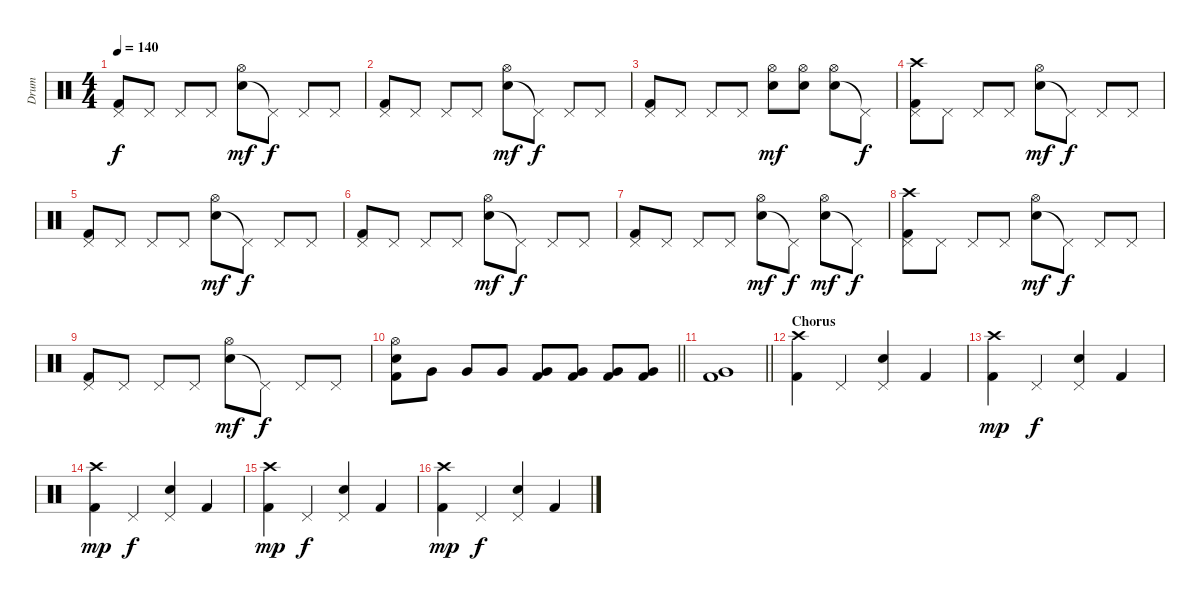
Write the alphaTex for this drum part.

\track ("Drum" "Drum") {instrument percussion}
\staff {score}
\articulation defaults
\ts (4 4)
\tempo 140
\clef neutral
\ks c
("Kick (hit) 2" "Pedal Hi-Hat (hit)").8{dy f} "Pedal Hi-Hat (hit)".8 "Pedal Hi-Hat (hit)".8 "Pedal Hi-Hat (hit)".8 ("Electric Snare (hit)" "Hi-Hat (open)").8{dy mf} "Pedal Hi-Hat (hit)"{t}.8{dy f} "Pedal Hi-Hat (hit)".8 "Pedal Hi-Hat (hit)".8 |
("Kick (hit) 2" "Pedal Hi-Hat (hit)").8 "Pedal Hi-Hat (hit)".8 "Pedal Hi-Hat (hit)".8 "Pedal Hi-Hat (hit)".8 ("Electric Snare (hit)" "Hi-Hat (open)").8{dy mf} "Pedal Hi-Hat (hit)"{t}.8{dy f} "Pedal Hi-Hat (hit)".8 "Pedal Hi-Hat (hit)".8 |
("Kick (hit) 2" "Pedal Hi-Hat (hit)").8 "Pedal Hi-Hat (hit)".8 "Pedal Hi-Hat (hit)".8 "Pedal Hi-Hat (hit)".8 ("Electric Snare (hit)" "Hi-Hat (open)").8{dy mf} ("Electric Snare (hit)" "Hi-Hat (open)").8 ("Electric Snare (hit)" "Hi-Hat (open)").8 "Pedal Hi-Hat (hit)"{t}.8{dy f} |
("Kick (hit) 2" "Pedal Hi-Hat (hit)" "Crash high (hit)").8 "Pedal Hi-Hat (hit)".8 "Pedal Hi-Hat (hit)".8 "Pedal Hi-Hat (hit)".8 ("Electric Snare (hit)" "Hi-Hat (open)").8{dy mf} "Pedal Hi-Hat (hit)"{t}.8{dy f} "Pedal Hi-Hat (hit)".8 "Pedal Hi-Hat (hit)".8 |
("Kick (hit) 2" "Pedal Hi-Hat (hit)").8 "Pedal Hi-Hat (hit)".8 "Pedal Hi-Hat (hit)".8 "Pedal Hi-Hat (hit)".8 ("Electric Snare (hit)" "Hi-Hat (open)").8{dy mf} "Pedal Hi-Hat (hit)"{t}.8{dy f} "Pedal Hi-Hat (hit)".8 "Pedal Hi-Hat (hit)".8 |
("Kick (hit) 2" "Pedal Hi-Hat (hit)").8 "Pedal Hi-Hat (hit)".8 "Pedal Hi-Hat (hit)".8 "Pedal Hi-Hat (hit)".8 ("Electric Snare (hit)" "Hi-Hat (open)").8{dy mf} "Pedal Hi-Hat (hit)"{t}.8{dy f} "Pedal Hi-Hat (hit)".8 "Pedal Hi-Hat (hit)".8 |
("Kick (hit) 2" "Pedal Hi-Hat (hit)").8 "Pedal Hi-Hat (hit)".8 "Pedal Hi-Hat (hit)".8 "Pedal Hi-Hat (hit)".8 ("Electric Snare (hit)" "Hi-Hat (open)").8{dy mf} "Pedal Hi-Hat (hit)"{t}.8{dy f} ("Electric Snare (hit)" "Hi-Hat (open)").8{dy mf} "Pedal Hi-Hat (hit)"{t}.8{dy f} |
("Kick (hit) 2" "Pedal Hi-Hat (hit)" "Crash high (hit)").8 "Pedal Hi-Hat (hit)".8 "Pedal Hi-Hat (hit)".8 "Pedal Hi-Hat (hit)".8 ("Electric Snare (hit)" "Hi-Hat (open)").8{dy mf} "Pedal Hi-Hat (hit)"{t}.8{dy f} "Pedal Hi-Hat (hit)".8 "Pedal Hi-Hat (hit)".8 |
("Kick (hit) 2" "Pedal Hi-Hat (hit)").8 "Pedal Hi-Hat (hit)".8 "Pedal Hi-Hat (hit)".8 "Pedal Hi-Hat (hit)".8 ("Electric Snare (hit)" "Hi-Hat (open)").8{dy mf} "Pedal Hi-Hat (hit)"{t}.8{dy f} "Pedal Hi-Hat (hit)".8 "Pedal Hi-Hat (hit)".8 |
\barLineRight lightlight
("Electric Snare (hit)" "Kick (hit) 2" "Hi-Hat (open)").8 "Very Low Tom (hit)".8 "Very Low Tom (hit)".8 "Very Low Tom (hit)".8 ("Very Low Tom (hit)" "Kick (hit) 2").8 ("Very Low Tom (hit)" "Kick (hit) 2").8 ("Very Low Tom (hit)" "Kick (hit) 2").8 ("Very Low Tom (hit)" "Kick (hit) 2").8 |
\barLineRight lightlight
("Very Low Tom (hit)" "Kick (hit) 2").1 |
\section ("" "Chorus")
("Kick (hit) 2" "Crash high (hit)").4 "Pedal Hi-Hat (hit)".4 ("Electric Snare (hit)" "Pedal Hi-Hat (hit)").4 "Kick (hit) 2".4 |
("Kick (hit) 2" "Crash high (hit)").4{dy mp} "Pedal Hi-Hat (hit)".4{dy f} ("Electric Snare (hit)" "Pedal Hi-Hat (hit)").4 "Kick (hit) 2".4 |
("Kick (hit) 2" "Crash high (hit)").4{dy mp} "Pedal Hi-Hat (hit)".4{dy f} ("Electric Snare (hit)" "Pedal Hi-Hat (hit)").4 "Kick (hit) 2".4 |
("Kick (hit) 2" "Crash high (hit)").4{dy mp} "Pedal Hi-Hat (hit)".4{dy f} ("Electric Snare (hit)" "Pedal Hi-Hat (hit)").4 "Kick (hit) 2".4 |
("Kick (hit) 2" "Crash high (hit)").4{dy mp} "Pedal Hi-Hat (hit)".4{dy f} ("Electric Snare (hit)" "Pedal Hi-Hat (hit)").4 "Kick (hit) 2".4
